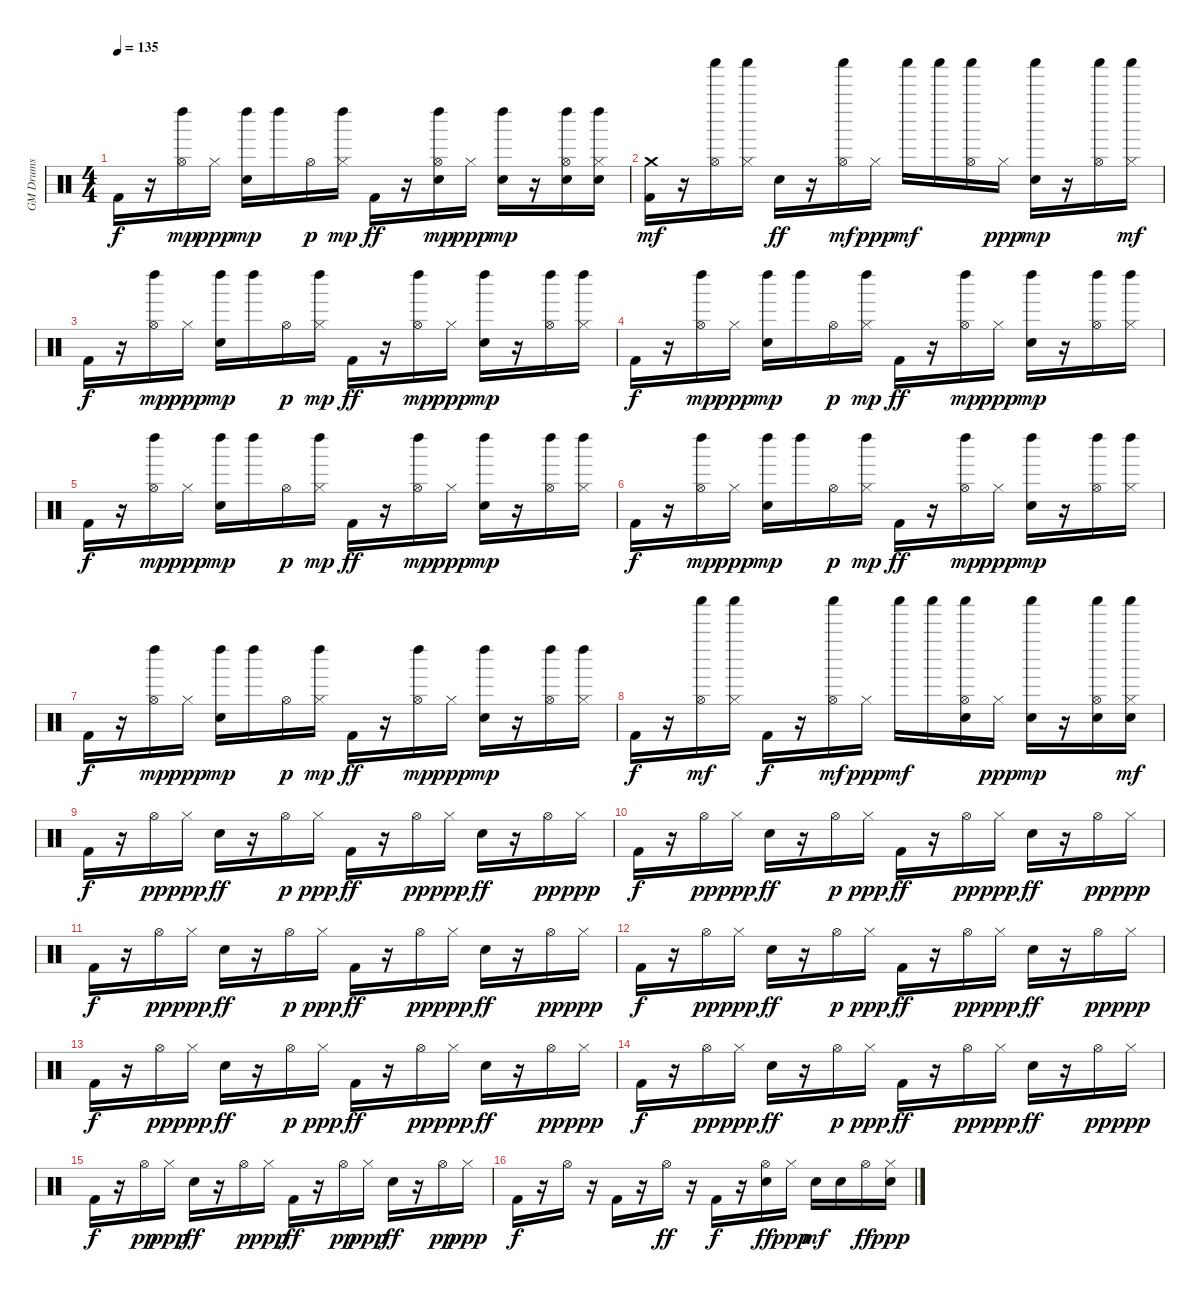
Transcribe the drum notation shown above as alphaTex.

\track ("GM Drums" "GM Drums") {instrument percussion}
\staff {score}
\articulation defaults
\ts (4 4)
\tempo 135
\clef neutral
\ks c "Kick (hit) 2".16{dy f}
r.16 ("Hi-Hat (open)" "Left Maraca (hit)").16{dy mp} "Hi-Hat (closed)".16{dy ppp} ("Snare (hit) 2" "Left Maraca (hit)").16{dy mp} "Left Maraca (hit)".16 "Hi-Hat (open)".16{dy p} ("Hi-Hat (closed)" "Left Maraca (hit)").16{dy mp} "Kick (hit) 2".16{dy ff} r.16 ("Snare (hit) 2" "Hi-Hat (open)" "Left Maraca (hit)").16{dy mp} "Hi-Hat (closed)".16{dy ppp} ("Snare (hit) 2" "Left Maraca (hit)").16{dy mp} r.16 ("Snare (hit) 2" "Hi-Hat (open)" "Left Maraca (hit)").16 ("Snare (hit) 2" "Hi-Hat (closed)" "Left Maraca (hit)").16 |
("Kick (hit) 2" "Crash medium (hit)").16{dy mf} r.16 ("Hi-Hat (open)" "Shaker (hit)").16 ("Hi-Hat (closed)" "Shaker (hit)").16 "Snare (hit) 2".16{dy ff} r.16 ("Hi-Hat (open)" "Shaker (hit)").16{dy mf} "Hi-Hat (closed)".16{dy ppp} "Shaker (hit)".16{dy mf} "Shaker (hit)".16 ("Hi-Hat (open)" "Shaker (hit)").16 "Hi-Hat (closed)".16{dy ppp} ("Snare (hit) 2" "Shaker (hit)").16{dy mp} r.16 ("Hi-Hat (open)" "Shaker (hit)").16 ("Hi-Hat (closed)" "Shaker (hit)").16{dy mf} |
"Kick (hit) 2".16{dy f} r.16 ("Hi-Hat (open)" "Left Maraca (hit)").16{dy mp} "Hi-Hat (closed)".16{dy ppp} ("Snare (hit) 2" "Left Maraca (hit)").16{dy mp} "Left Maraca (hit)".16 "Hi-Hat (open)".16{dy p} ("Hi-Hat (closed)" "Left Maraca (hit)").16{dy mp} "Kick (hit) 2".16{dy ff} r.16 ("Hi-Hat (open)" "Left Maraca (hit)").16{dy mp} "Hi-Hat (closed)".16{dy ppp} ("Snare (hit) 2" "Left Maraca (hit)").16{dy mp} r.16 ("Hi-Hat (open)" "Left Maraca (hit)").16 ("Hi-Hat (closed)" "Left Maraca (hit)").16 |
"Kick (hit) 2".16{dy f} r.16 ("Hi-Hat (open)" "Left Maraca (hit)").16{dy mp} "Hi-Hat (closed)".16{dy ppp} ("Snare (hit) 2" "Left Maraca (hit)").16{dy mp} "Left Maraca (hit)".16 "Hi-Hat (open)".16{dy p} ("Hi-Hat (closed)" "Left Maraca (hit)").16{dy mp} "Kick (hit) 2".16{dy ff} r.16 ("Hi-Hat (open)" "Left Maraca (hit)").16{dy mp} "Hi-Hat (closed)".16{dy ppp} ("Snare (hit) 2" "Left Maraca (hit)").16{dy mp} r.16 ("Hi-Hat (open)" "Left Maraca (hit)").16 ("Hi-Hat (closed)" "Left Maraca (hit)").16 |
"Kick (hit) 2".16{dy f} r.16 ("Hi-Hat (open)" "Left Maraca (hit)").16{dy mp} "Hi-Hat (closed)".16{dy ppp} ("Snare (hit) 2" "Left Maraca (hit)").16{dy mp} "Left Maraca (hit)".16 "Hi-Hat (open)".16{dy p} ("Hi-Hat (closed)" "Left Maraca (hit)").16{dy mp} "Kick (hit) 2".16{dy ff} r.16 ("Hi-Hat (open)" "Left Maraca (hit)").16{dy mp} "Hi-Hat (closed)".16{dy ppp} ("Snare (hit) 2" "Left Maraca (hit)").16{dy mp} r.16 ("Hi-Hat (open)" "Left Maraca (hit)").16 ("Hi-Hat (closed)" "Left Maraca (hit)").16 |
"Kick (hit) 2".16{dy f} r.16 ("Hi-Hat (open)" "Left Maraca (hit)").16{dy mp} "Hi-Hat (closed)".16{dy ppp} ("Snare (hit) 2" "Left Maraca (hit)").16{dy mp} "Left Maraca (hit)".16 "Hi-Hat (open)".16{dy p} ("Hi-Hat (closed)" "Left Maraca (hit)").16{dy mp} "Kick (hit) 2".16{dy ff} r.16 ("Hi-Hat (open)" "Left Maraca (hit)").16{dy mp} "Hi-Hat (closed)".16{dy ppp} ("Snare (hit) 2" "Left Maraca (hit)").16{dy mp} r.16 ("Hi-Hat (open)" "Left Maraca (hit)").16 ("Hi-Hat (closed)" "Left Maraca (hit)").16 |
"Kick (hit) 2".16{dy f} r.16 ("Hi-Hat (open)" "Left Maraca (hit)").16{dy mp} "Hi-Hat (closed)".16{dy ppp} ("Snare (hit) 2" "Left Maraca (hit)").16{dy mp} "Left Maraca (hit)".16 "Hi-Hat (open)".16{dy p} ("Hi-Hat (closed)" "Left Maraca (hit)").16{dy mp} "Kick (hit) 2".16{dy ff} r.16 ("Hi-Hat (open)" "Left Maraca (hit)").16{dy mp} "Hi-Hat (closed)".16{dy ppp} ("Snare (hit) 2" "Left Maraca (hit)").16{dy mp} r.16 ("Hi-Hat (open)" "Left Maraca (hit)").16 ("Hi-Hat (closed)" "Left Maraca (hit)").16 |
"Kick (hit) 2".16{dy f} r.16 ("Hi-Hat (open)" "Shaker (hit)").16{dy mf} ("Hi-Hat (closed)" "Shaker (hit)").16 "Kick (hit) 2".16{dy f} r.16 ("Hi-Hat (open)" "Shaker (hit)").16{dy mf} "Hi-Hat (closed)".16{dy ppp} "Shaker (hit)".16{dy mf} "Shaker (hit)".16 ("Electric Snare (hit)" "Hi-Hat (open)" "Shaker (hit)").16 "Hi-Hat (closed)".16{dy ppp} ("Electric Snare (hit)" "Shaker (hit)").16{dy mp} r.16 ("Electric Snare (hit)" "Hi-Hat (open)" "Shaker (hit)").16 ("Electric Snare (hit)" "Hi-Hat (closed)" "Shaker (hit)").16{dy mf} |
"Kick (hit) 2".16{dy f} r.16 "Hi-Hat (open)".16{dy pp} "Hi-Hat (closed)".16{dy ppp} "Snare (hit) 2".16{dy ff} r.16 "Hi-Hat (open)".16{dy p} "Hi-Hat (closed)".16{dy ppp} "Kick (hit) 2".16{dy ff} r.16 "Hi-Hat (open)".16{dy pp} "Hi-Hat (closed)".16{dy ppp} "Snare (hit) 2".16{dy ff} r.16 "Hi-Hat (open)".16{dy pp} "Hi-Hat (closed)".16{dy ppp} |
"Kick (hit) 2".16{dy f} r.16 "Hi-Hat (open)".16{dy pp} "Hi-Hat (closed)".16{dy ppp} "Snare (hit) 2".16{dy ff} r.16 "Hi-Hat (open)".16{dy p} "Hi-Hat (closed)".16{dy ppp} "Kick (hit) 2".16{dy ff} r.16 "Hi-Hat (open)".16{dy pp} "Hi-Hat (closed)".16{dy ppp} "Snare (hit) 2".16{dy ff} r.16 "Hi-Hat (open)".16{dy pp} "Hi-Hat (closed)".16{dy ppp} |
"Kick (hit) 2".16{dy f} r.16 "Hi-Hat (open)".16{dy pp} "Hi-Hat (closed)".16{dy ppp} "Snare (hit) 2".16{dy ff} r.16 "Hi-Hat (open)".16{dy p} "Hi-Hat (closed)".16{dy ppp} "Kick (hit) 2".16{dy ff} r.16 "Hi-Hat (open)".16{dy pp} "Hi-Hat (closed)".16{dy ppp} "Snare (hit) 2".16{dy ff} r.16 "Hi-Hat (open)".16{dy pp} "Hi-Hat (closed)".16{dy ppp} |
"Kick (hit) 2".16{dy f} r.16 "Hi-Hat (open)".16{dy pp} "Hi-Hat (closed)".16{dy ppp} "Snare (hit) 2".16{dy ff} r.16 "Hi-Hat (open)".16{dy p} "Hi-Hat (closed)".16{dy ppp} "Kick (hit) 2".16{dy ff} r.16 "Hi-Hat (open)".16{dy pp} "Hi-Hat (closed)".16{dy ppp} "Snare (hit) 2".16{dy ff} r.16 "Hi-Hat (open)".16{dy pp} "Hi-Hat (closed)".16{dy ppp} |
"Kick (hit) 2".16{dy f} r.16 "Hi-Hat (open)".16{dy pp} "Hi-Hat (closed)".16{dy ppp} "Snare (hit) 2".16{dy ff} r.16 "Hi-Hat (open)".16{dy p} "Hi-Hat (closed)".16{dy ppp} "Kick (hit) 2".16{dy ff} r.16 "Hi-Hat (open)".16{dy pp} "Hi-Hat (closed)".16{dy ppp} "Snare (hit) 2".16{dy ff} r.16 "Hi-Hat (open)".16{dy pp} "Hi-Hat (closed)".16{dy ppp} |
"Kick (hit) 2".16{dy f} r.16 "Hi-Hat (open)".16{dy pp} "Hi-Hat (closed)".16{dy ppp} "Snare (hit) 2".16{dy ff} r.16 "Hi-Hat (open)".16{dy p} "Hi-Hat (closed)".16{dy ppp} "Kick (hit) 2".16{dy ff} r.16 "Hi-Hat (open)".16{dy pp} "Hi-Hat (closed)".16{dy ppp} "Snare (hit) 2".16{dy ff} r.16 "Hi-Hat (open)".16{dy pp} "Hi-Hat (closed)".16{dy ppp} |
"Kick (hit) 2".16{dy f} r.16 "Hi-Hat (open)".16{dy pp} "Hi-Hat (closed)".16{dy ppp} "Snare (hit) 2".16{dy ff} r.16 "Hi-Hat (open)".16{dy p} "Hi-Hat (closed)".16{dy ppp} "Kick (hit) 2".16{dy ff} r.16 "Hi-Hat (open)".16{dy pp} "Hi-Hat (closed)".16{dy ppp} "Snare (hit) 2".16{dy ff} r.16 "Hi-Hat (open)".16{dy pp} "Hi-Hat (closed)".16{dy ppp} |
"Kick (hit) 2".16{dy f} r.16 "Hi-Hat (open)".16 r.16 "Kick (hit) 2".16 r.16 "Hi-Hat (open)".16{dy ff} r.16 "Kick (hit) 2".16{dy f} r.16 ("Electric Snare (hit)" "Hi-Hat (open)").16{dy ff} "Hi-Hat (closed)".16{dy ppp} "Electric Snare (hit)".16{dy mf} "Electric Snare (hit)".16 "Hi-Hat (open)".16{dy ff} ("Electric Snare (hit)" "Hi-Hat (closed)").16{dy ppp}
